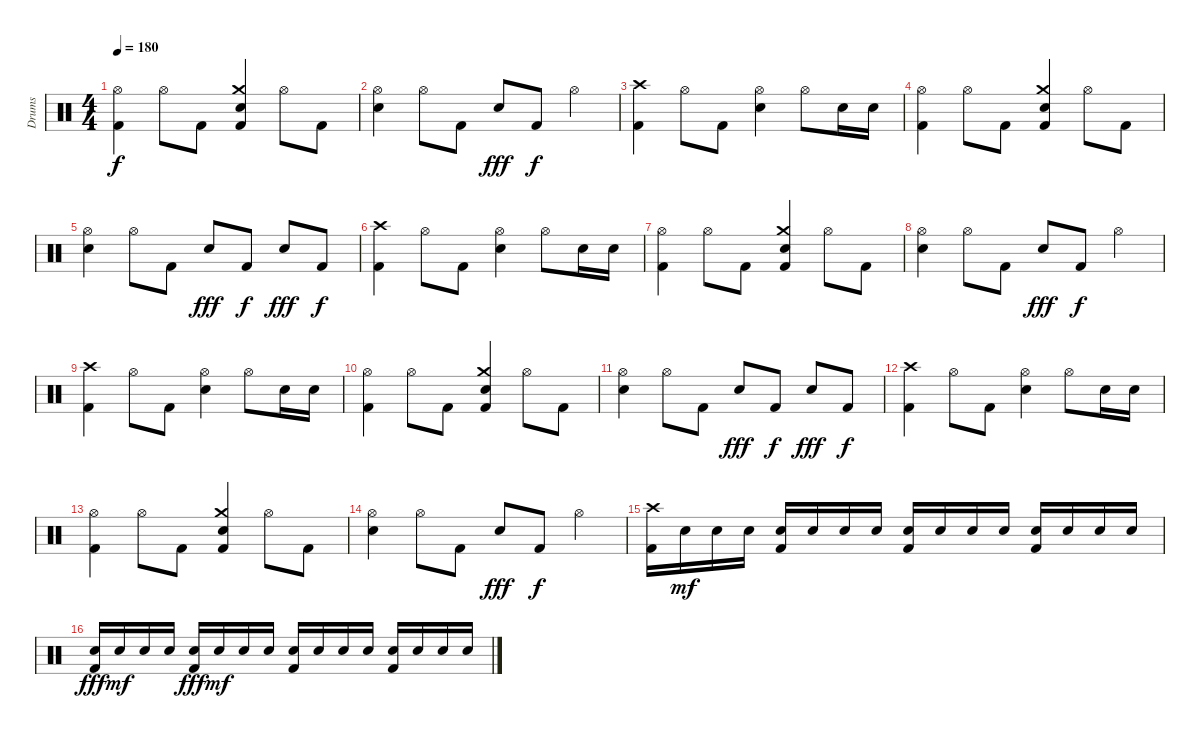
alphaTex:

\track ("Drums" "Drums") {instrument percussion}
\staff {score}
\articulation defaults
\ts (4 4)
\tempo 180
\clef neutral
\ks c
("Hi-Hat (open)" "Kick (hit) 2").4{dy f} "Hi-Hat (open)".8 "Kick (hit) 2".8 ("Crash medium (hit)" "Electric Snare (hit)" "Kick (hit) 2").4 "Hi-Hat (open)".8 "Kick (hit) 2".8 |
("Hi-Hat (open)" "Electric Snare (hit)").4 "Hi-Hat (open)".8 "Kick (hit) 2".8 "Electric Snare (hit)".8{dy fff} "Kick (hit) 2".8{dy f} "Hi-Hat (open)".4 |
("Crash high (hit)" "Kick (hit) 2").4 "Hi-Hat (open)".8 "Kick (hit) 2".8 ("Hi-Hat (open)" "Electric Snare (hit)").4 "Hi-Hat (open)".8 "Electric Snare (hit)".16 "Electric Snare (hit)".16 |
("Hi-Hat (open)" "Kick (hit) 2").4 "Hi-Hat (open)".8 "Kick (hit) 2".8 ("Crash medium (hit)" "Electric Snare (hit)" "Kick (hit) 2").4 "Hi-Hat (open)".8 "Kick (hit) 2".8 |
("Hi-Hat (open)" "Electric Snare (hit)").4 "Hi-Hat (open)".8 "Kick (hit) 2".8 "Electric Snare (hit)".8{dy fff} "Kick (hit) 2".8{dy f} "Electric Snare (hit)".8{dy fff} "Kick (hit) 2".8{dy f} |
("Crash high (hit)" "Kick (hit) 2").4 "Hi-Hat (open)".8 "Kick (hit) 2".8 ("Hi-Hat (open)" "Electric Snare (hit)").4 "Hi-Hat (open)".8 "Electric Snare (hit)".16 "Electric Snare (hit)".16 |
("Hi-Hat (open)" "Kick (hit) 2").4 "Hi-Hat (open)".8 "Kick (hit) 2".8 ("Crash medium (hit)" "Electric Snare (hit)" "Kick (hit) 2").4 "Hi-Hat (open)".8 "Kick (hit) 2".8 |
("Hi-Hat (open)" "Electric Snare (hit)").4 "Hi-Hat (open)".8 "Kick (hit) 2".8 "Electric Snare (hit)".8{dy fff} "Kick (hit) 2".8{dy f} "Hi-Hat (open)".4 |
("Crash high (hit)" "Kick (hit) 2").4 "Hi-Hat (open)".8 "Kick (hit) 2".8 ("Hi-Hat (open)" "Electric Snare (hit)").4 "Hi-Hat (open)".8 "Electric Snare (hit)".16 "Electric Snare (hit)".16 |
("Hi-Hat (open)" "Kick (hit) 2").4 "Hi-Hat (open)".8 "Kick (hit) 2".8 ("Crash medium (hit)" "Electric Snare (hit)" "Kick (hit) 2").4 "Hi-Hat (open)".8 "Kick (hit) 2".8 |
("Hi-Hat (open)" "Electric Snare (hit)").4 "Hi-Hat (open)".8 "Kick (hit) 2".8 "Electric Snare (hit)".8{dy fff} "Kick (hit) 2".8{dy f} "Electric Snare (hit)".8{dy fff} "Kick (hit) 2".8{dy f} |
("Crash high (hit)" "Kick (hit) 2").4 "Hi-Hat (open)".8 "Kick (hit) 2".8 ("Hi-Hat (open)" "Electric Snare (hit)").4 "Hi-Hat (open)".8 "Electric Snare (hit)".16 "Electric Snare (hit)".16 |
("Hi-Hat (open)" "Kick (hit) 2").4 "Hi-Hat (open)".8 "Kick (hit) 2".8 ("Crash medium (hit)" "Electric Snare (hit)" "Kick (hit) 2").4 "Hi-Hat (open)".8 "Kick (hit) 2".8 |
("Hi-Hat (open)" "Electric Snare (hit)").4 "Hi-Hat (open)".8 "Kick (hit) 2".8 "Electric Snare (hit)".8{dy fff} "Kick (hit) 2".8{dy f} "Hi-Hat (open)".4 |
("Crash high (hit)" "Kick (hit) 2").16 "Electric Snare (hit)".16{dy mf} "Electric Snare (hit)".16 "Electric Snare (hit)".16 ("Electric Snare (hit)" "Kick (hit) 2").16 "Electric Snare (hit)".16 "Electric Snare (hit)".16 "Electric Snare (hit)".16 ("Electric Snare (hit)" "Kick (hit) 2").16 "Electric Snare (hit)".16 "Electric Snare (hit)".16 "Electric Snare (hit)".16 ("Electric Snare (hit)" "Kick (hit) 2").16 "Electric Snare (hit)".16 "Electric Snare (hit)".16 "Electric Snare (hit)".16 |
("Electric Snare (hit)" "Kick (hit) 2").16{dy fff} "Electric Snare (hit)".16{dy mf} "Electric Snare (hit)".16 "Electric Snare (hit)".16 ("Electric Snare (hit)" "Kick (hit) 2").16{dy fff} "Electric Snare (hit)".16{dy mf} "Electric Snare (hit)".16 "Electric Snare (hit)".16 ("Electric Snare (hit)" "Kick (hit) 2").16 "Electric Snare (hit)".16 "Electric Snare (hit)".16 "Electric Snare (hit)".16 ("Electric Snare (hit)" "Kick (hit) 2").16 "Electric Snare (hit)".16 "Electric Snare (hit)".16 "Electric Snare (hit)".16
